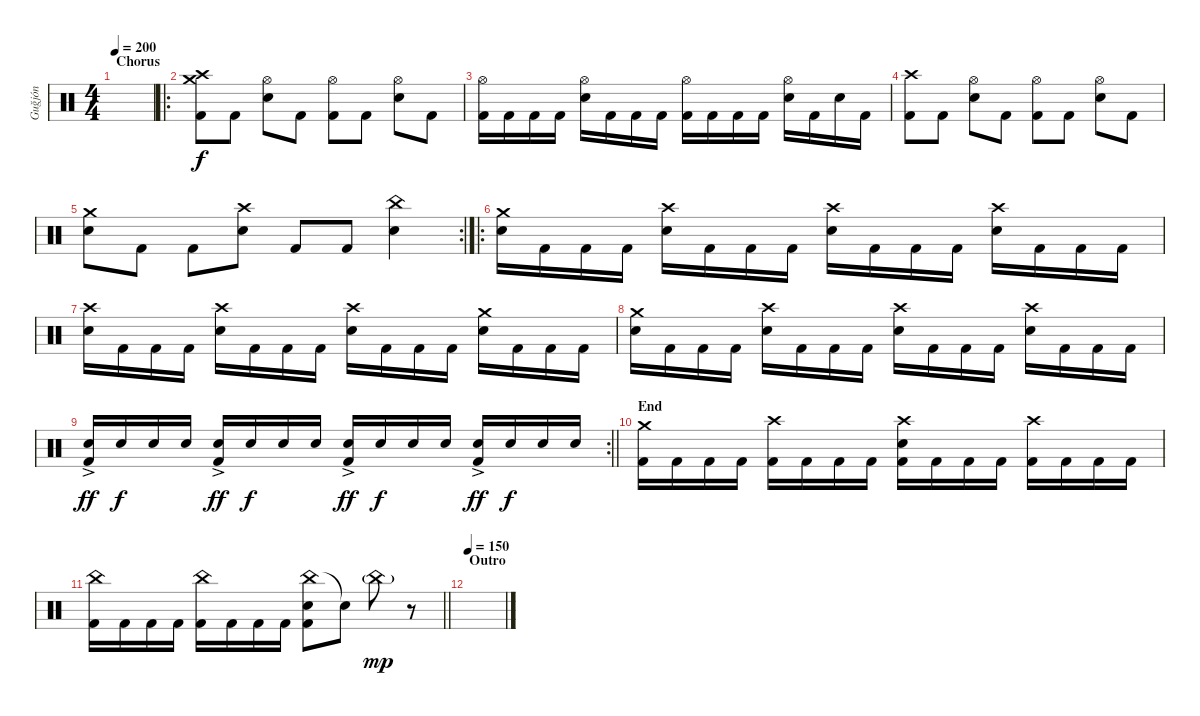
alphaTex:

\track ("Guğjón" "Guğjón") {instrument percussion}
\staff {score}
\articulation defaults
\ts (4 4)
\section ("" "Chorus")
\tempo 200
\clef neutral
\ks c
|
\ro
("Crash medium (hit)" "Crash high (hit)" "Kick (hit) 2").8 "Kick (hit) 2".8 ("Hi-Hat (open)" "Electric Snare (hit)").8 "Kick (hit) 2".8 ("Hi-Hat (open)" "Kick (hit) 2").8 "Kick (hit) 2".8 ("Hi-Hat (open)" "Electric Snare (hit)").8 "Kick (hit) 2".8 |
("Hi-Hat (open)" "Kick (hit) 2").16 "Kick (hit) 2".16 "Kick (hit) 2".16 "Kick (hit) 2".16 ("Hi-Hat (open)" "Electric Snare (hit)").16 "Kick (hit) 2".16 "Kick (hit) 2".16 "Kick (hit) 2".16 ("Hi-Hat (open)" "Kick (hit) 2").16 "Kick (hit) 2".16 "Kick (hit) 2".16 "Kick (hit) 2".16 ("Hi-Hat (open)" "Electric Snare (hit)").16 "Kick (hit) 2".16 "Electric Snare (hit)".16 "Kick (hit) 2".16 |
("Crash high (hit)" "Kick (hit) 2").8 "Kick (hit) 2".8 ("Hi-Hat (open)" "Electric Snare (hit)").8 "Kick (hit) 2".8 ("Hi-Hat (open)" "Kick (hit) 2").8 "Kick (hit) 2".8 ("Hi-Hat (open)" "Electric Snare (hit)").8 "Kick (hit) 2".8 |
\rc 2
("Crash medium (hit)" "Electric Snare (hit)").8 "Kick (hit) 2".8 "Kick (hit) 2".8 ("Crash high (hit)" "Electric Snare (hit)").8 "Kick (hit) 2".8 "Kick (hit) 2".8 ("China (hit)" "Electric Snare (hit)").4 |
\ro
("Crash medium (hit)" "Electric Snare (hit)").16 "Kick (hit) 2".16 "Kick (hit) 2".16 "Kick (hit) 2".16 ("Crash high (hit)" "Electric Snare (hit)").16 "Kick (hit) 2".16 "Kick (hit) 2".16 "Kick (hit) 2".16 ("Crash high (hit)" "Electric Snare (hit)").16 "Kick (hit) 2".16 "Kick (hit) 2".16 "Kick (hit) 2".16 ("Crash high (hit)" "Electric Snare (hit)").16 "Kick (hit) 2".16 "Kick (hit) 2".16 "Kick (hit) 2".16 |
("Crash high (hit)" "Electric Snare (hit)").16 "Kick (hit) 2".16 "Kick (hit) 2".16 "Kick (hit) 2".16 ("Crash high (hit)" "Electric Snare (hit)").16 "Kick (hit) 2".16 "Kick (hit) 2".16 "Kick (hit) 2".16 ("Crash high (hit)" "Electric Snare (hit)").16 "Kick (hit) 2".16 "Kick (hit) 2".16 "Kick (hit) 2".16 ("Crash medium (hit)" "Electric Snare (hit)").16 "Kick (hit) 2".16 "Kick (hit) 2".16 "Kick (hit) 2".16 |
("Crash medium (hit)" "Electric Snare (hit)").16 "Kick (hit) 2".16 "Kick (hit) 2".16 "Kick (hit) 2".16 ("Crash high (hit)" "Electric Snare (hit)").16 "Kick (hit) 2".16 "Kick (hit) 2".16 "Kick (hit) 2".16 ("Crash high (hit)" "Electric Snare (hit)").16 "Kick (hit) 2".16 "Kick (hit) 2".16 "Kick (hit) 2".16 ("Crash high (hit)" "Electric Snare (hit)").16 "Kick (hit) 2".16 "Kick (hit) 2".16 "Kick (hit) 2".16 |
\rc 2
\barLineRight lightlight
("Electric Snare (hit)"{ac} "Kick (hit) 2"{ac}).16{dy ff} "Electric Snare (hit)".16{dy f} "Electric Snare (hit)".16 "Electric Snare (hit)".16 ("Electric Snare (hit)"{ac} "Kick (hit) 2"{ac}).16{dy ff} "Electric Snare (hit)".16{dy f} "Electric Snare (hit)".16 "Electric Snare (hit)".16 ("Electric Snare (hit)"{ac} "Kick (hit) 2"{ac}).16{dy ff} "Electric Snare (hit)".16{dy f} "Electric Snare (hit)".16 "Electric Snare (hit)".16 ("Electric Snare (hit)"{ac} "Kick (hit) 2"{ac}).16{dy ff} "Electric Snare (hit)".16{dy f} "Electric Snare (hit)".16 "Electric Snare (hit)".16 |
\section ("" "End")
("Crash medium (hit)" "Kick (hit) 2").16 "Kick (hit) 2".16 "Kick (hit) 2".16 "Kick (hit) 2".16 ("Crash high (hit)" "Kick (hit) 2").16 "Kick (hit) 2".16 "Kick (hit) 2".16 "Kick (hit) 2".16 ("Crash high (hit)" "Electric Snare (hit)" "Kick (hit) 2").16 "Kick (hit) 2".16 "Kick (hit) 2".16 "Kick (hit) 2".16 ("Crash high (hit)" "Kick (hit) 2").16 "Kick (hit) 2".16 "Kick (hit) 2".16 "Kick (hit) 2".16 |
\barLineRight lightlight
("China (hit)" "Kick (hit) 2").16 "Kick (hit) 2".16 "Kick (hit) 2".16 "Kick (hit) 2".16 ("China (hit)" "Kick (hit) 2").16 "Kick (hit) 2".16 "Kick (hit) 2".16 "Kick (hit) 2".16 ("China (hit)" "Electric Snare (hit)" "Kick (hit) 2").8 "Snare (hit)"{t}.8 "China (hit)"{g}.8{dy mp volume 0} r.8 |
\section ("" "Outro")
\tempo 150
